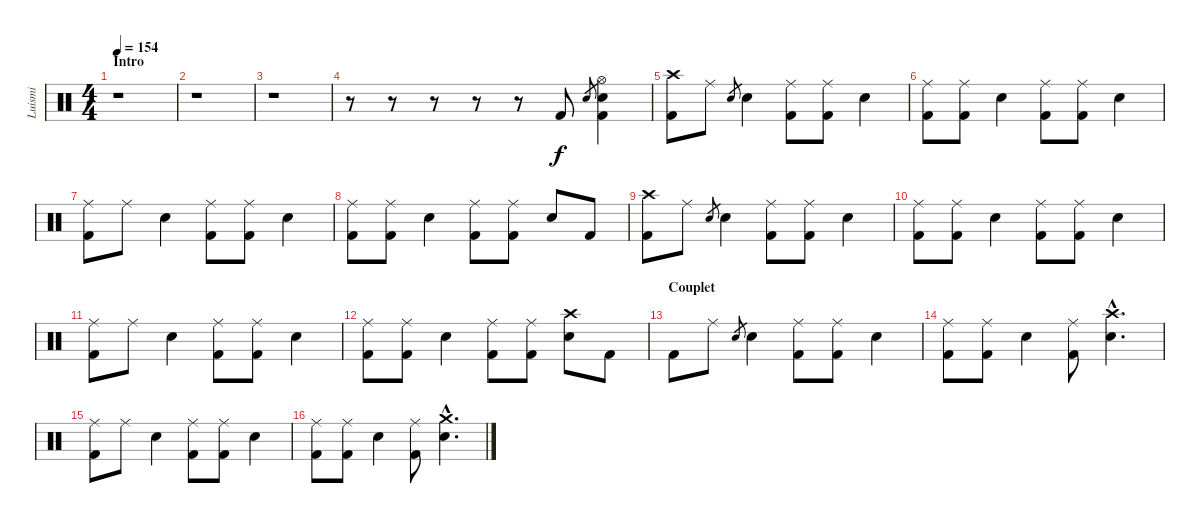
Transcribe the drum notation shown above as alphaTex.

\track ("Luismi" "Luismi") {instrument percussion}
\staff {score}
\articulation defaults
\ts (4 4)
\section ("" "Intro")
\tempo 154
\clef neutral
\ks c
r.1{dy f} |
r.1 |
r.1 |
r.8 r.8 r.8 r.8 r.8 "Kick (hit) 2".8 "Electric Snare (hit)".8{gr} ("Hi-Hat (open)" "Electric Snare (hit)" "Kick (hit) 2").4 |
("Crash high (hit)" "Kick (hit) 2").8 "Ride (middle)".8 "Electric Snare (hit)".8{gr} "Electric Snare (hit)".4 ("Ride (middle)" "Kick (hit) 2").8 ("Ride (middle)" "Kick (hit) 2").8 "Electric Snare (hit)".4 |
("Ride (middle)" "Kick (hit) 2").8 ("Ride (middle)" "Kick (hit) 2").8 "Electric Snare (hit)".4 ("Ride (middle)" "Kick (hit) 2").8 ("Ride (middle)" "Kick (hit) 2").8 "Electric Snare (hit)".4 |
("Ride (middle)" "Kick (hit) 2").8 "Ride (middle)".8 "Electric Snare (hit)".4 ("Ride (middle)" "Kick (hit) 2").8 ("Ride (middle)" "Kick (hit) 2").8 "Electric Snare (hit)".4 |
("Ride (middle)" "Kick (hit) 2").8 ("Ride (middle)" "Kick (hit) 2").8 "Electric Snare (hit)".4 ("Ride (middle)" "Kick (hit) 2").8 ("Ride (middle)" "Kick (hit) 2").8 "Electric Snare (hit)".8 "Kick (hit) 2".8 |
("Crash high (hit)" "Kick (hit) 2").8 "Ride (middle)".8 "Electric Snare (hit)".8{gr} "Electric Snare (hit)".4 ("Ride (middle)" "Kick (hit) 2").8 ("Ride (middle)" "Kick (hit) 2").8 "Electric Snare (hit)".4 |
("Ride (middle)" "Kick (hit) 2").8 ("Ride (middle)" "Kick (hit) 2").8 "Electric Snare (hit)".4 ("Ride (middle)" "Kick (hit) 2").8 ("Ride (middle)" "Kick (hit) 2").8 "Electric Snare (hit)".4 |
("Ride (middle)" "Kick (hit) 2").8 "Ride (middle)".8 "Electric Snare (hit)".4 ("Ride (middle)" "Kick (hit) 2").8 ("Ride (middle)" "Kick (hit) 2").8 "Electric Snare (hit)".4 |
("Ride (middle)" "Kick (hit) 2").8 ("Ride (middle)" "Kick (hit) 2").8 "Electric Snare (hit)".4 ("Ride (middle)" "Kick (hit) 2").8 ("Ride (middle)" "Kick (hit) 2").8 ("Crash high (hit)" "Electric Snare (hit)").8 "Kick (hit) 2".8 |
\section ("" "Couplet")
"Kick (hit) 2".8 "Ride (middle)".8 "Electric Snare (hit)".8{gr} "Electric Snare (hit)".4 ("Ride (middle)" "Kick (hit) 2").8 ("Ride (middle)" "Kick (hit) 2").8 "Electric Snare (hit)".4 |
("Ride (middle)" "Kick (hit) 2").8 ("Ride (middle)" "Kick (hit) 2").8 "Electric Snare (hit)".4 ("Ride (middle)" "Kick (hit) 2").8 ("Crash high (hit)"{hac} "Electric Snare (hit)"{hac}).4{d} |
("Ride (middle)" "Kick (hit) 2").8 "Ride (middle)".8 "Electric Snare (hit)".4 ("Ride (middle)" "Kick (hit) 2").8 ("Ride (middle)" "Kick (hit) 2").8 "Electric Snare (hit)".4 |
("Ride (middle)" "Kick (hit) 2").8 ("Ride (middle)" "Kick (hit) 2").8 "Electric Snare (hit)".4 ("Ride (middle)" "Kick (hit) 2").8 ("Crash medium (hit)"{hac} "Electric Snare (hit)"{hac}).4{d}
